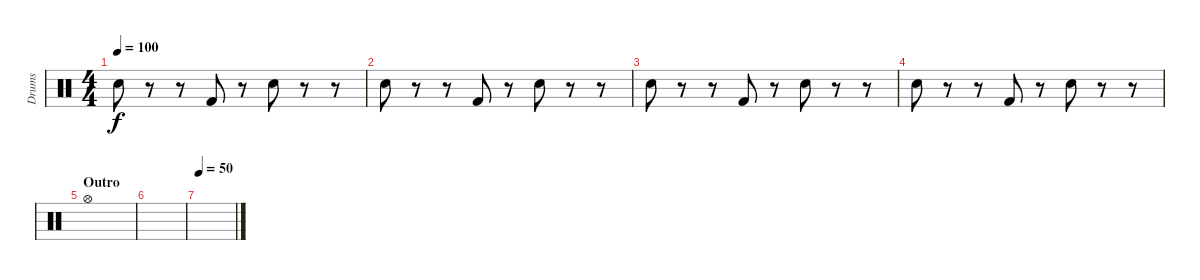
\track ("Drums" "Drums") {instrument percussion}
\staff {score}
\articulation defaults
\ts (4 4)
\tempo 100
\clef neutral
\ks c "Snare (hit) 2".8{dy f}
r.8 r.8 "Kick (hit) 2".8 r.8 "Snare (hit) 2".8 r.8 r.8 |
"Snare (hit) 2".8 r.8 r.8 "Kick (hit) 2".8 r.8 "Snare (hit) 2".8 r.8 r.8 |
"Snare (hit) 2".8 r.8 r.8 "Kick (hit) 2".8 r.8 "Snare (hit) 2".8 r.8 r.8 |
"Snare (hit) 2".8 r.8 r.8 "Kick (hit) 2".8 r.8 "Snare (hit) 2".8 r.8 r.8 |
\section ("" "Outro")
"Hi-Hat (open)".1 |
|
\tempo 50
